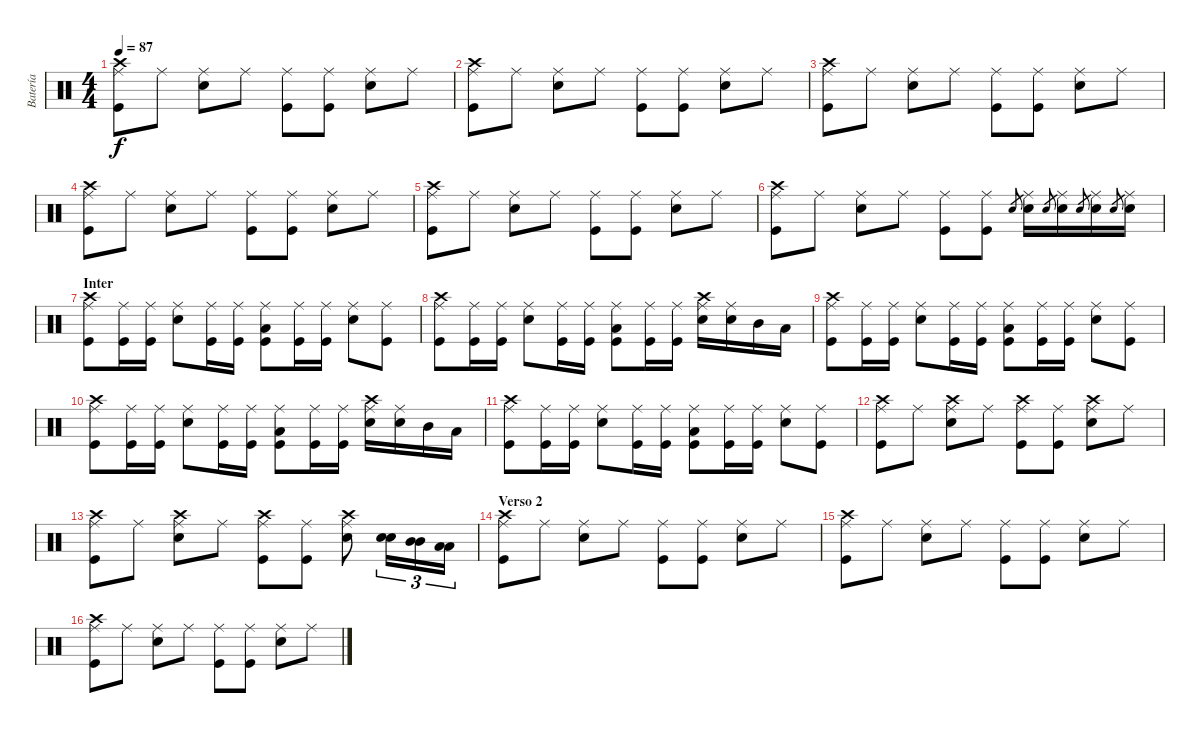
\track ("Batería" "Batería") {instrument percussion}
\staff {score}
\articulation defaults
\ts (4 4)
\tempo 87
\clef neutral
\ks c
("Crash high (hit)" "Ride (middle)" "Kick (hit)").8{dy f} "Ride (middle)".8 ("Ride (middle)" "Snare (hit) 2").8 "Ride (middle)".8 ("Ride (middle)" "Kick (hit)").8 ("Ride (middle)" "Kick (hit)").8 ("Ride (middle)" "Snare (hit) 2").8 "Ride (middle)".8 |
("Crash high (hit)" "Ride (middle)" "Kick (hit)").8 "Ride (middle)".8 ("Ride (middle)" "Snare (hit) 2").8 "Ride (middle)".8 ("Ride (middle)" "Kick (hit)").8 ("Ride (middle)" "Kick (hit)").8 ("Ride (middle)" "Snare (hit) 2").8 "Ride (middle)".8 |
("Crash high (hit)" "Ride (middle)" "Kick (hit)").8 "Ride (middle)".8 ("Ride (middle)" "Snare (hit) 2").8 "Ride (middle)".8 ("Ride (middle)" "Kick (hit)").8 ("Ride (middle)" "Kick (hit)").8 ("Ride (middle)" "Snare (hit) 2").8 "Ride (middle)".8 |
("Crash high (hit)" "Ride (middle)" "Kick (hit)").8 "Ride (middle)".8 ("Ride (middle)" "Snare (hit) 2").8 "Ride (middle)".8 ("Ride (middle)" "Kick (hit)").8 ("Ride (middle)" "Kick (hit)").8 ("Ride (middle)" "Snare (hit) 2").8 "Ride (middle)".8 |
("Crash high (hit)" "Ride (middle)" "Kick (hit)").8 "Ride (middle)".8 ("Ride (middle)" "Snare (hit) 2").8 "Ride (middle)".8 ("Ride (middle)" "Kick (hit)").8 ("Ride (middle)" "Kick (hit)").8 ("Ride (middle)" "Snare (hit) 2").8 "Ride (middle)".8 |
("Crash high (hit)" "Ride (middle)" "Kick (hit)").8 "Ride (middle)".8 ("Ride (middle)" "Snare (hit) 2").8 "Ride (middle)".8 ("Ride (middle)" "Kick (hit)").8 ("Ride (middle)" "Kick (hit)").8 "Snare (hit) 2".8{gr} ("Ride (middle)" "Snare (hit) 2").16 "Snare (hit) 2".8{gr} ("Ride (middle)" "Snare (hit) 2").16 "Snare (hit) 2".8{gr} ("Ride (middle)" "Snare (hit) 2").16 "Snare (hit) 2".8{gr} ("Ride (middle)" "Snare (hit) 2").16 |
\section ("" "Inter")
("Crash high (hit)" "Ride (middle)" "Kick (hit)").8 ("Ride (middle)" "Kick (hit)").16 ("Ride (middle)" "Kick (hit)").16 ("Ride (middle)" "Snare (hit) 2").8 ("Ride (middle)" "Kick (hit)").16 ("Ride (middle)" "Kick (hit)").16 ("Ride (middle)" "Low Tom (hit)" "Kick (hit)").8 ("Ride (middle)" "Kick (hit)").16 ("Ride (middle)" "Kick (hit)").16 ("Ride (middle)" "Snare (hit) 2").8 ("Ride (middle)" "Kick (hit)").8 |
("Crash high (hit)" "Ride (middle)" "Kick (hit)").8 ("Ride (middle)" "Kick (hit)").16 ("Ride (middle)" "Kick (hit)").16 ("Ride (middle)" "Snare (hit) 2").8 ("Ride (middle)" "Kick (hit)").16 ("Ride (middle)" "Kick (hit)").16 ("Ride (middle)" "Low Tom (hit)" "Kick (hit)").8 ("Ride (middle)" "Kick (hit)").16 ("Ride (middle)" "Kick (hit)").16 ("Crash high (hit)" "Ride (middle)" "Snare (hit) 2").16 ("Ride (middle)" "Snare (hit) 2").16 "Mid Tom (hit)".16 "Low Tom (hit)".16 |
("Crash high (hit)" "Ride (middle)" "Kick (hit)").8 ("Ride (middle)" "Kick (hit)").16 ("Ride (middle)" "Kick (hit)").16 ("Ride (middle)" "Snare (hit) 2").8 ("Ride (middle)" "Kick (hit)").16 ("Ride (middle)" "Kick (hit)").16 ("Ride (middle)" "Low Tom (hit)" "Kick (hit)").8 ("Ride (middle)" "Kick (hit)").16 ("Ride (middle)" "Kick (hit)").16 ("Ride (middle)" "Snare (hit) 2").8 ("Ride (middle)" "Kick (hit)").8 |
("Crash high (hit)" "Ride (middle)" "Kick (hit)").8 ("Ride (middle)" "Kick (hit)").16 ("Ride (middle)" "Kick (hit)").16 ("Ride (middle)" "Snare (hit) 2").8 ("Ride (middle)" "Kick (hit)").16 ("Ride (middle)" "Kick (hit)").16 ("Ride (middle)" "Low Tom (hit)" "Kick (hit)").8 ("Ride (middle)" "Kick (hit)").16 ("Ride (middle)" "Kick (hit)").16 ("Crash high (hit)" "Ride (middle)" "Snare (hit) 2").16 ("Ride (middle)" "Snare (hit) 2").16 "Mid Tom (hit)".16 "Low Tom (hit)".16 |
("Crash high (hit)" "Ride (middle)" "Kick (hit)").8 ("Ride (middle)" "Kick (hit)").16 ("Ride (middle)" "Kick (hit)").16 ("Ride (middle)" "Snare (hit) 2").8 ("Ride (middle)" "Kick (hit)").16 ("Ride (middle)" "Kick (hit)").16 ("Ride (middle)" "Low Tom (hit)" "Kick (hit)").8 ("Ride (middle)" "Kick (hit)").16 ("Ride (middle)" "Kick (hit)").16 ("Ride (middle)" "Snare (hit) 2").8 ("Ride (middle)" "Kick (hit)").8 |
("Crash high (hit)" "Ride (middle)" "Kick (hit)").8 "Ride (middle)".8 ("Crash high (hit)" "Ride (middle)" "Snare (hit) 2").8 "Ride (middle)".8 ("Crash high (hit)" "Ride (middle)" "Kick (hit)").8 ("Ride (middle)" "Kick (hit)").8 ("Crash high (hit)" "Ride (middle)" "Snare (hit) 2").8 "Ride (middle)".8 |
("Crash high (hit)" "Ride (middle)" "Kick (hit)").8 "Ride (middle)".8 ("Crash high (hit)" "Ride (middle)" "Snare (hit) 2").8 "Ride (middle)".8 ("Crash high (hit)" "Ride (middle)" "Kick (hit)").8 ("Ride (middle)" "Kick (hit)").8 ("Crash high (hit)" "Ride (middle)" "Snare (hit) 2").8 ("Snare (hit) 2" "Snare (hit) 2").16{tu (3 2)} ("Mid Tom (hit)" "Mid Tom (hit)").16{tu (3 2)} ("Low Tom (hit)" "Low Tom (hit)").16{tu (3 2)} |
\section ("" "Verso 2")
("Crash high (hit)" "Ride (middle)" "Kick (hit)").8 "Ride (middle)".8 ("Ride (middle)" "Snare (hit) 2").8 "Ride (middle)".8 ("Ride (middle)" "Kick (hit)").8 ("Ride (middle)" "Kick (hit)").8 ("Ride (middle)" "Snare (hit) 2").8 "Ride (middle)".8 |
("Crash high (hit)" "Ride (middle)" "Kick (hit)").8 "Ride (middle)".8 ("Ride (middle)" "Snare (hit) 2").8 "Ride (middle)".8 ("Ride (middle)" "Kick (hit)").8 ("Ride (middle)" "Kick (hit)").8 ("Ride (middle)" "Snare (hit) 2").8 "Ride (middle)".8 |
("Crash high (hit)" "Ride (middle)" "Kick (hit)").8 "Ride (middle)".8 ("Ride (middle)" "Snare (hit) 2").8 "Ride (middle)".8 ("Ride (middle)" "Kick (hit)").8 ("Ride (middle)" "Kick (hit)").8 ("Ride (middle)" "Snare (hit) 2").8 "Ride (middle)".8
